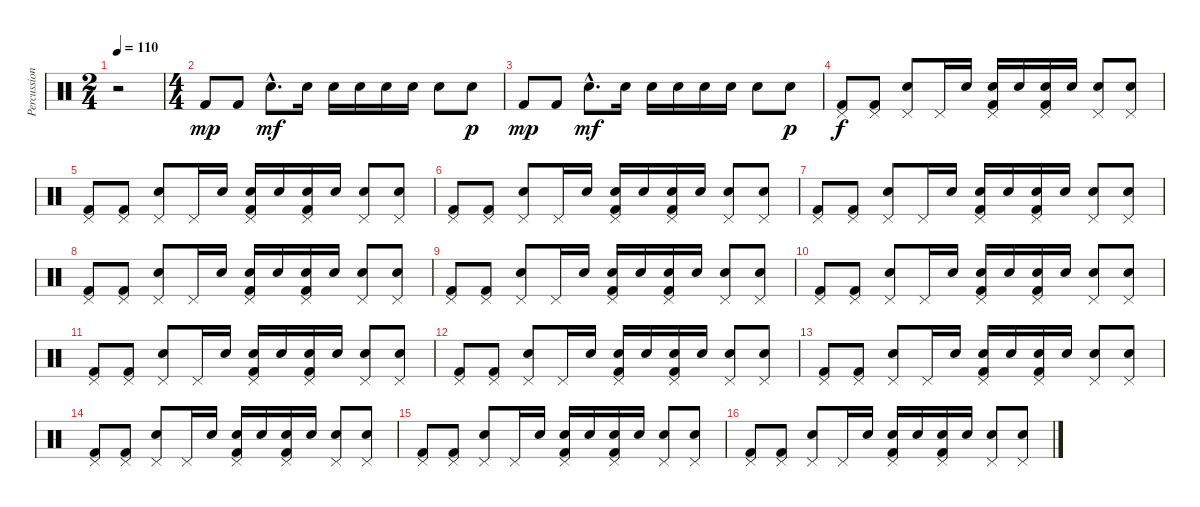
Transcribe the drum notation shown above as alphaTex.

\track ("Percussions" "Percussion") {instrument percussion}
\staff {score}
\articulation defaults
\ts (2 4)
\tempo 110
\clef neutral
\ks c
r.2{dy mp} |
\ts (4 4)
"Kick (hit) 2".8 "Kick (hit) 2".8 "Snare (hit) 2"{hac}.8{d dy mf} "Snare (hit) 2".16 "Snare (hit) 2".16 "Snare (hit) 2".16 "Snare (hit) 2".16 "Snare (hit) 2".16 "Snare (hit) 2".8 "Snare (hit) 2".8{dy p} |
"Kick (hit) 2".8{dy mp} "Kick (hit) 2".8 "Snare (hit) 2"{hac}.8{d dy mf} "Snare (hit) 2".16 "Snare (hit) 2".16 "Snare (hit) 2".16 "Snare (hit) 2".16 "Snare (hit) 2".16 "Snare (hit) 2".8 "Snare (hit) 2".8{dy p} |
("Pedal Hi-Hat (hit)" "Kick (hit) 2").8{dy f} ("Pedal Hi-Hat (hit)" "Kick (hit) 2").8 ("Pedal Hi-Hat (hit)" "Electric Snare (hit)").8 "Pedal Hi-Hat (hit)".16 "Electric Snare (hit)".16 ("Pedal Hi-Hat (hit)" "Snare (hit) 2" "Kick (hit) 2").16 "Electric Snare (hit)".16 ("Pedal Hi-Hat (hit)" "Snare (hit) 2" "Kick (hit) 2").16 "Electric Snare (hit)".16 ("Pedal Hi-Hat (hit)" "Electric Snare (hit)").8 ("Pedal Hi-Hat (hit)" "Electric Snare (hit)").8 |
("Pedal Hi-Hat (hit)" "Kick (hit) 2").8 ("Pedal Hi-Hat (hit)" "Kick (hit) 2").8 ("Pedal Hi-Hat (hit)" "Electric Snare (hit)").8 "Pedal Hi-Hat (hit)".16 "Electric Snare (hit)".16 ("Pedal Hi-Hat (hit)" "Snare (hit) 2" "Kick (hit) 2").16 "Electric Snare (hit)".16 ("Pedal Hi-Hat (hit)" "Snare (hit) 2" "Kick (hit) 2").16 "Electric Snare (hit)".16 ("Pedal Hi-Hat (hit)" "Electric Snare (hit)").8 ("Pedal Hi-Hat (hit)" "Electric Snare (hit)").8 |
("Pedal Hi-Hat (hit)" "Kick (hit) 2").8 ("Pedal Hi-Hat (hit)" "Kick (hit) 2").8 ("Pedal Hi-Hat (hit)" "Electric Snare (hit)").8 "Pedal Hi-Hat (hit)".16 "Electric Snare (hit)".16 ("Pedal Hi-Hat (hit)" "Snare (hit) 2" "Kick (hit) 2").16 "Electric Snare (hit)".16 ("Pedal Hi-Hat (hit)" "Snare (hit) 2" "Kick (hit) 2").16 "Electric Snare (hit)".16 ("Pedal Hi-Hat (hit)" "Electric Snare (hit)").8 ("Pedal Hi-Hat (hit)" "Electric Snare (hit)").8 |
("Pedal Hi-Hat (hit)" "Kick (hit) 2").8 ("Pedal Hi-Hat (hit)" "Kick (hit) 2").8 ("Pedal Hi-Hat (hit)" "Electric Snare (hit)").8 "Pedal Hi-Hat (hit)".16 "Electric Snare (hit)".16 ("Pedal Hi-Hat (hit)" "Snare (hit) 2" "Kick (hit) 2").16 "Electric Snare (hit)".16 ("Pedal Hi-Hat (hit)" "Snare (hit) 2" "Kick (hit) 2").16 "Electric Snare (hit)".16 ("Pedal Hi-Hat (hit)" "Electric Snare (hit)").8 ("Pedal Hi-Hat (hit)" "Electric Snare (hit)").8 |
("Pedal Hi-Hat (hit)" "Kick (hit) 2").8 ("Pedal Hi-Hat (hit)" "Kick (hit) 2").8 ("Pedal Hi-Hat (hit)" "Electric Snare (hit)").8 "Pedal Hi-Hat (hit)".16 "Electric Snare (hit)".16 ("Pedal Hi-Hat (hit)" "Snare (hit) 2" "Kick (hit) 2").16 "Electric Snare (hit)".16 ("Pedal Hi-Hat (hit)" "Snare (hit) 2" "Kick (hit) 2").16 "Electric Snare (hit)".16 ("Pedal Hi-Hat (hit)" "Electric Snare (hit)").8 ("Pedal Hi-Hat (hit)" "Electric Snare (hit)").8 |
("Pedal Hi-Hat (hit)" "Kick (hit) 2").8 ("Pedal Hi-Hat (hit)" "Kick (hit) 2").8 ("Pedal Hi-Hat (hit)" "Electric Snare (hit)").8 "Pedal Hi-Hat (hit)".16 "Electric Snare (hit)".16 ("Pedal Hi-Hat (hit)" "Snare (hit) 2" "Kick (hit) 2").16 "Electric Snare (hit)".16 ("Pedal Hi-Hat (hit)" "Snare (hit) 2" "Kick (hit) 2").16 "Electric Snare (hit)".16 ("Pedal Hi-Hat (hit)" "Electric Snare (hit)").8 ("Pedal Hi-Hat (hit)" "Electric Snare (hit)").8 |
("Pedal Hi-Hat (hit)" "Kick (hit) 2").8 ("Pedal Hi-Hat (hit)" "Kick (hit) 2").8 ("Pedal Hi-Hat (hit)" "Electric Snare (hit)").8 "Pedal Hi-Hat (hit)".16 "Electric Snare (hit)".16 ("Pedal Hi-Hat (hit)" "Snare (hit) 2" "Kick (hit) 2").16 "Electric Snare (hit)".16 ("Pedal Hi-Hat (hit)" "Snare (hit) 2" "Kick (hit) 2").16 "Electric Snare (hit)".16 ("Pedal Hi-Hat (hit)" "Electric Snare (hit)").8 ("Pedal Hi-Hat (hit)" "Electric Snare (hit)").8 |
("Pedal Hi-Hat (hit)" "Kick (hit) 2").8 ("Pedal Hi-Hat (hit)" "Kick (hit) 2").8 ("Pedal Hi-Hat (hit)" "Electric Snare (hit)").8 "Pedal Hi-Hat (hit)".16 "Electric Snare (hit)".16 ("Pedal Hi-Hat (hit)" "Snare (hit) 2" "Kick (hit) 2").16 "Electric Snare (hit)".16 ("Pedal Hi-Hat (hit)" "Snare (hit) 2" "Kick (hit) 2").16 "Electric Snare (hit)".16 ("Pedal Hi-Hat (hit)" "Electric Snare (hit)").8 ("Pedal Hi-Hat (hit)" "Electric Snare (hit)").8 |
("Pedal Hi-Hat (hit)" "Kick (hit) 2").8 ("Pedal Hi-Hat (hit)" "Kick (hit) 2").8 ("Pedal Hi-Hat (hit)" "Electric Snare (hit)").8 "Pedal Hi-Hat (hit)".16 "Electric Snare (hit)".16 ("Pedal Hi-Hat (hit)" "Snare (hit) 2" "Kick (hit) 2").16 "Electric Snare (hit)".16 ("Pedal Hi-Hat (hit)" "Snare (hit) 2" "Kick (hit) 2").16 "Electric Snare (hit)".16 ("Pedal Hi-Hat (hit)" "Electric Snare (hit)").8 ("Pedal Hi-Hat (hit)" "Electric Snare (hit)").8 |
("Pedal Hi-Hat (hit)" "Kick (hit) 2").8 ("Pedal Hi-Hat (hit)" "Kick (hit) 2").8 ("Pedal Hi-Hat (hit)" "Electric Snare (hit)").8 "Pedal Hi-Hat (hit)".16 "Electric Snare (hit)".16 ("Pedal Hi-Hat (hit)" "Snare (hit) 2" "Kick (hit) 2").16 "Electric Snare (hit)".16 ("Pedal Hi-Hat (hit)" "Snare (hit) 2" "Kick (hit) 2").16 "Electric Snare (hit)".16 ("Pedal Hi-Hat (hit)" "Electric Snare (hit)").8 ("Pedal Hi-Hat (hit)" "Electric Snare (hit)").8 |
("Pedal Hi-Hat (hit)" "Kick (hit) 2").8 ("Pedal Hi-Hat (hit)" "Kick (hit) 2").8 ("Pedal Hi-Hat (hit)" "Electric Snare (hit)").8 "Pedal Hi-Hat (hit)".16 "Electric Snare (hit)".16 ("Pedal Hi-Hat (hit)" "Snare (hit) 2" "Kick (hit) 2").16 "Electric Snare (hit)".16 ("Pedal Hi-Hat (hit)" "Snare (hit) 2" "Kick (hit) 2").16 "Electric Snare (hit)".16 ("Pedal Hi-Hat (hit)" "Electric Snare (hit)").8 ("Pedal Hi-Hat (hit)" "Electric Snare (hit)").8 |
("Pedal Hi-Hat (hit)" "Kick (hit) 2").8 ("Pedal Hi-Hat (hit)" "Kick (hit) 2").8 ("Pedal Hi-Hat (hit)" "Electric Snare (hit)").8 "Pedal Hi-Hat (hit)".16 "Electric Snare (hit)".16 ("Pedal Hi-Hat (hit)" "Snare (hit) 2" "Kick (hit) 2").16 "Electric Snare (hit)".16 ("Pedal Hi-Hat (hit)" "Snare (hit) 2" "Kick (hit) 2").16 "Electric Snare (hit)".16 ("Pedal Hi-Hat (hit)" "Electric Snare (hit)").8 ("Pedal Hi-Hat (hit)" "Electric Snare (hit)").8 |
("Pedal Hi-Hat (hit)" "Kick (hit) 2").8 ("Pedal Hi-Hat (hit)" "Kick (hit) 2").8 ("Pedal Hi-Hat (hit)" "Electric Snare (hit)").8 "Pedal Hi-Hat (hit)".16 "Electric Snare (hit)".16 ("Pedal Hi-Hat (hit)" "Snare (hit) 2" "Kick (hit) 2").16 "Electric Snare (hit)".16 ("Pedal Hi-Hat (hit)" "Snare (hit) 2" "Kick (hit) 2").16 "Electric Snare (hit)".16 ("Pedal Hi-Hat (hit)" "Electric Snare (hit)").8 ("Pedal Hi-Hat (hit)" "Electric Snare (hit)").8
